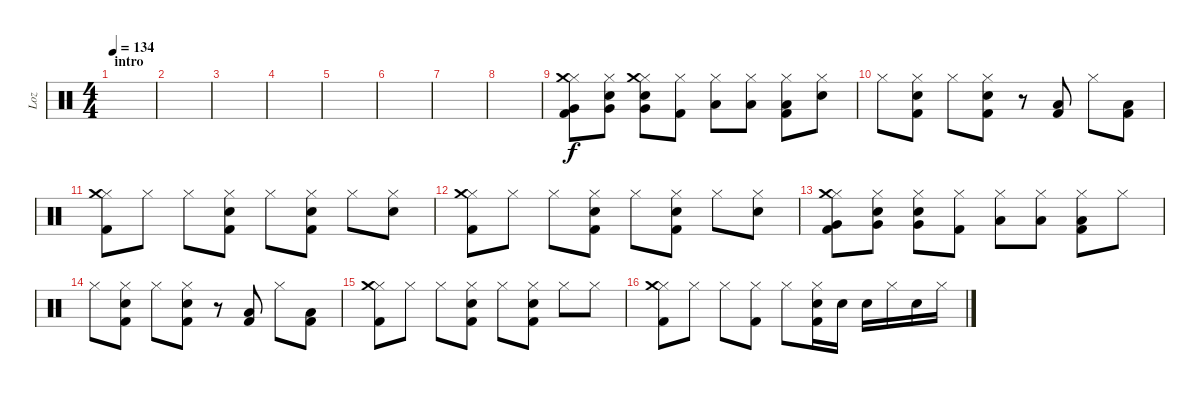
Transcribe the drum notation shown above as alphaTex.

\track ("Loz" "Loz") {instrument percussion}
\staff {score}
\articulation defaults
\ts (4 4)
\section ("" "intro")
\tempo 134
\clef neutral
\ks c
|
|
|
|
|
|
|
|
("Hi-Hat (closed)" "Crash medium (hit)" "Very Low Tom (hit)" "Kick (hit) 2").8 ("Hi-Hat (closed)" "Electric Snare (hit)" "Very Low Tom (hit)").8 ("Hi-Hat (closed)" "Crash medium (hit)" "Electric Snare (hit)" "Very Low Tom (hit)").8 ("Hi-Hat (closed)" "Kick (hit) 2").8 ("Hi-Hat (closed)" "Low Floor Tom (hit)").8 ("Hi-Hat (closed)" "Low Floor Tom (hit)").8 ("Hi-Hat (closed)" "Low Floor Tom (hit)" "Kick (hit) 2").8 ("Hi-Hat (closed)" "Electric Snare (hit)").8 |
"Hi-Hat (closed)".8 ("Hi-Hat (closed)" "Electric Snare (hit)" "Kick (hit) 2").8 "Hi-Hat (closed)".8 ("Hi-Hat (closed)" "Electric Snare (hit)" "Kick (hit) 2").8 r.8 ("Low Floor Tom (hit)" "Kick (hit) 2").8 "Hi-Hat (closed)".8 ("Low Floor Tom (hit)" "Kick (hit) 2").8 |
("Hi-Hat (closed)" "Crash medium (hit)" "Kick (hit) 2").8 "Hi-Hat (closed)".8 "Hi-Hat (closed)".8 ("Hi-Hat (closed)" "Electric Snare (hit)" "Kick (hit) 2").8 "Hi-Hat (closed)".8 ("Hi-Hat (closed)" "Electric Snare (hit)" "Kick (hit) 2").8 "Hi-Hat (closed)".8 ("Hi-Hat (closed)" "Electric Snare (hit)").8 |
("Hi-Hat (closed)" "Crash medium (hit)" "Kick (hit) 2").8 "Hi-Hat (closed)".8 "Hi-Hat (closed)".8 ("Hi-Hat (closed)" "Electric Snare (hit)" "Kick (hit) 2").8 "Hi-Hat (closed)".8 ("Hi-Hat (closed)" "Electric Snare (hit)" "Kick (hit) 2").8 "Hi-Hat (closed)".8 ("Hi-Hat (closed)" "Electric Snare (hit)").8 |
("Hi-Hat (closed)" "Crash medium (hit)" "Very Low Tom (hit)" "Kick (hit) 2").8 ("Hi-Hat (closed)" "Electric Snare (hit)" "Very Low Tom (hit)").8 ("Hi-Hat (closed)" "Electric Snare (hit)" "Very Low Tom (hit)").8 ("Hi-Hat (closed)" "Kick (hit) 2").8 ("Hi-Hat (closed)" "Low Floor Tom (hit)").8 ("Hi-Hat (closed)" "Low Floor Tom (hit)").8 ("Hi-Hat (closed)" "Low Floor Tom (hit)" "Kick (hit) 2").8 "Hi-Hat (closed)".8 |
"Hi-Hat (closed)".8 ("Hi-Hat (closed)" "Electric Snare (hit)" "Kick (hit) 2").8 "Hi-Hat (closed)".8 ("Hi-Hat (closed)" "Electric Snare (hit)" "Kick (hit) 2").8 r.8 ("Low Floor Tom (hit)" "Kick (hit) 2").8 "Hi-Hat (closed)".8 ("Low Floor Tom (hit)" "Kick (hit) 2").8 |
("Hi-Hat (closed)" "Crash medium (hit)" "Kick (hit) 2").8 "Hi-Hat (closed)".8 "Hi-Hat (closed)".8 ("Hi-Hat (closed)" "Electric Snare (hit)" "Kick (hit) 2").8 "Hi-Hat (closed)".8 ("Hi-Hat (closed)" "Electric Snare (hit)" "Kick (hit) 2").8 "Hi-Hat (closed)".8 "Hi-Hat (closed)".8 |
("Hi-Hat (closed)" "Crash medium (hit)" "Kick (hit) 2").8 "Hi-Hat (closed)".8 "Hi-Hat (closed)".8 ("Hi-Hat (closed)" "Kick (hit) 2").8 "Hi-Hat (closed)".8 ("Hi-Hat (closed)" "Electric Snare (hit)" "Kick (hit) 2").16 "Electric Snare (hit)".16 "Electric Snare (hit)".16 "Hi-Hat (closed)".16 "Electric Snare (hit)".16 "Hi-Hat (closed)".16
